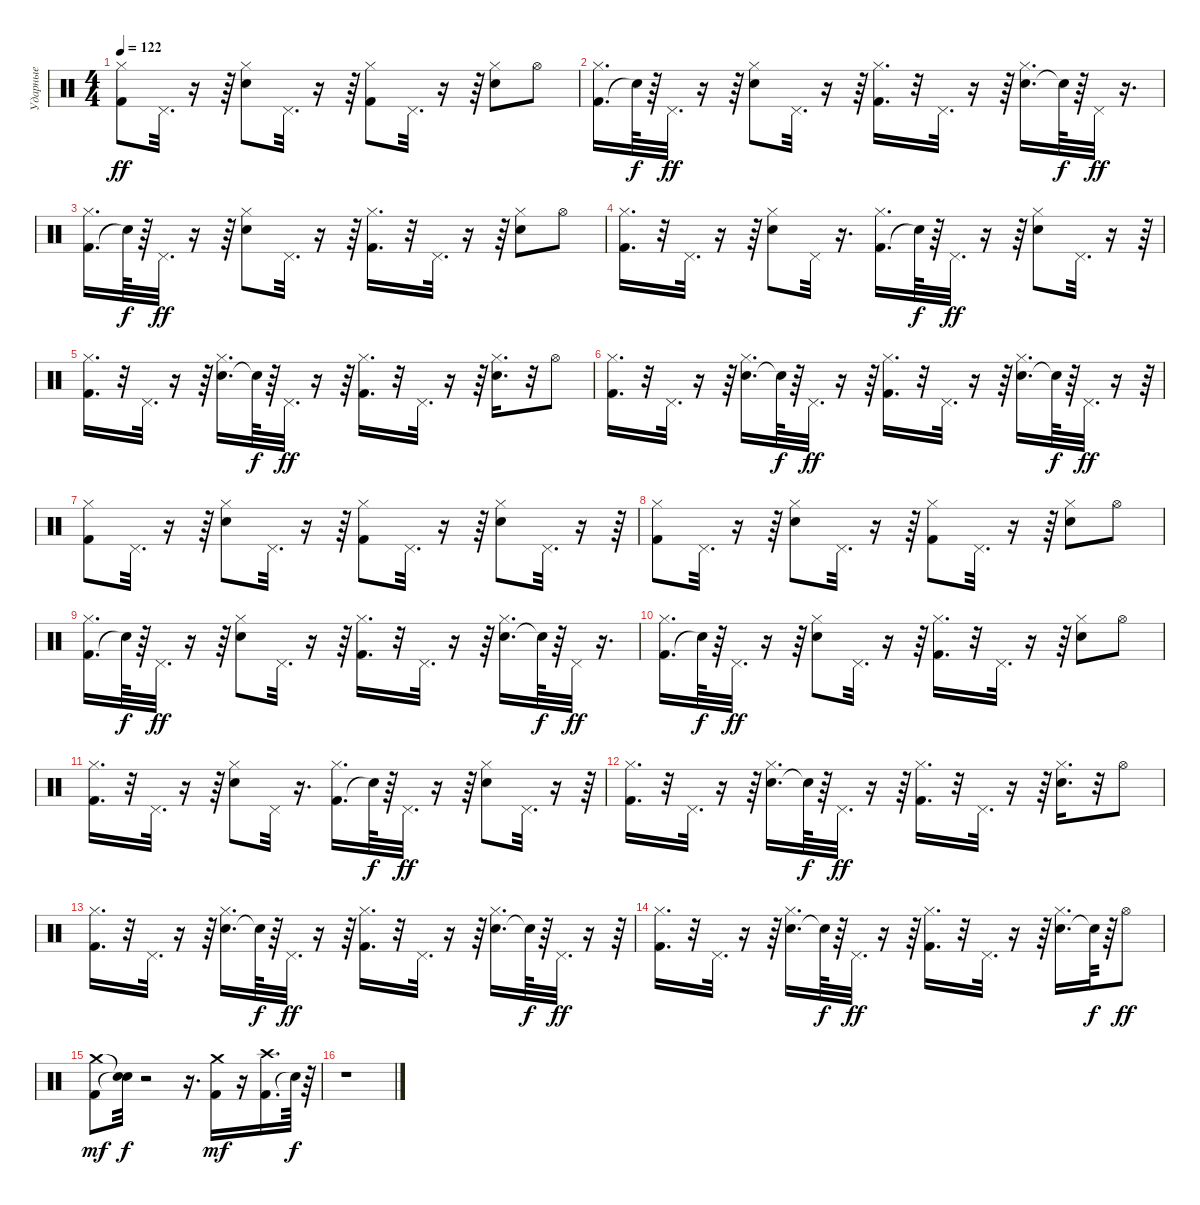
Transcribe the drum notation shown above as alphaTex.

\track ("Ударные" "Ударные") {instrument percussion}
\staff {score}
\articulation defaults
\ts (4 4)
\tempo 122
\clef neutral
\ks c
("Kick (hit) 2" "Hi-Hat (closed)").8{dy ff} "Pedal Hi-Hat (hit)".32{d} r.16 r.64 ("Snare (hit) 2" "Hi-Hat (closed)").8 "Pedal Hi-Hat (hit)".32{d} r.16 r.64 ("Kick (hit) 2" "Hi-Hat (closed)").8 "Pedal Hi-Hat (hit)".32{d} r.16 r.64 ("Snare (hit) 2" "Hi-Hat (closed)").8 "Hi-Hat (open)".8 |
("Kick (hit) 2" "Hi-Hat (closed)").16{d} "Snare (hit)"{t}.64{dy f} r.64 "Pedal Hi-Hat (hit)".32{d dy ff} r.16 r.64 ("Snare (hit) 2" "Hi-Hat (closed)").8 "Pedal Hi-Hat (hit)".32{d} r.16 r.64 ("Kick (hit) 2" "Hi-Hat (closed)").16{d} r.32 "Pedal Hi-Hat (hit)".32{d} r.16 r.64 ("Snare (hit) 2" "Hi-Hat (closed)").16{d} "Snare (hit)"{t}.64{dy f} r.64 "Pedal Hi-Hat (hit)".32{dy ff} r.16{d} |
("Kick (hit) 2" "Hi-Hat (closed)").16{d} "Snare (hit)"{t}.64{dy f} r.64 "Pedal Hi-Hat (hit)".32{d dy ff} r.16 r.64 ("Snare (hit) 2" "Hi-Hat (closed)").8 "Pedal Hi-Hat (hit)".32{d} r.16 r.64 ("Kick (hit) 2" "Hi-Hat (closed)").16{d} r.32 "Pedal Hi-Hat (hit)".32{d} r.16 r.64 ("Snare (hit) 2" "Hi-Hat (closed)").8 "Hi-Hat (open)".8 |
("Kick (hit) 2" "Hi-Hat (closed)").16{d} r.32 "Pedal Hi-Hat (hit)".32{d} r.16 r.64 ("Snare (hit) 2" "Hi-Hat (closed)").8 "Pedal Hi-Hat (hit)".32 r.16{d} ("Kick (hit) 2" "Hi-Hat (closed)").16{d} "Snare (hit)"{t}.64{dy f} r.64 "Pedal Hi-Hat (hit)".32{d dy ff} r.16 r.64 ("Snare (hit) 2" "Hi-Hat (closed)").8 "Pedal Hi-Hat (hit)".32{d} r.16 r.64 |
("Kick (hit) 2" "Hi-Hat (closed)").16{d} r.32 "Pedal Hi-Hat (hit)".32{d} r.16 r.64 ("Snare (hit) 2" "Hi-Hat (closed)").16{d} "Snare (hit)"{t}.64{dy f} r.64 "Pedal Hi-Hat (hit)".32{d dy ff} r.16 r.64 ("Kick (hit) 2" "Hi-Hat (closed)").16{d} r.32 "Pedal Hi-Hat (hit)".32{d} r.16 r.64 ("Snare (hit) 2" "Hi-Hat (closed)").16{d} r.32 "Hi-Hat (open)".8 |
("Kick (hit) 2" "Hi-Hat (closed)").16{d} r.32 "Pedal Hi-Hat (hit)".32{d} r.16 r.64 ("Snare (hit) 2" "Hi-Hat (closed)").16{d} "Snare (hit)"{t}.64{dy f} r.64 "Pedal Hi-Hat (hit)".32{d dy ff} r.16 r.64 ("Kick (hit) 2" "Hi-Hat (closed)").16{d} r.32 "Pedal Hi-Hat (hit)".32{d} r.16 r.64 ("Snare (hit) 2" "Hi-Hat (closed)").16{d} "Snare (hit)"{t}.64{dy f} r.64 "Pedal Hi-Hat (hit)".32{d dy ff} r.16 r.64 |
("Kick (hit) 2" "Hi-Hat (closed)").8 "Pedal Hi-Hat (hit)".32{d} r.16 r.64 ("Snare (hit) 2" "Hi-Hat (closed)").8 "Pedal Hi-Hat (hit)".32{d} r.16 r.64 ("Kick (hit) 2" "Hi-Hat (closed)").8 "Pedal Hi-Hat (hit)".32{d} r.16 r.64 ("Snare (hit) 2" "Hi-Hat (closed)").8 "Pedal Hi-Hat (hit)".32{d} r.16 r.64 |
("Kick (hit) 2" "Hi-Hat (closed)").8 "Pedal Hi-Hat (hit)".32{d} r.16 r.64 ("Snare (hit) 2" "Hi-Hat (closed)").8 "Pedal Hi-Hat (hit)".32{d} r.16 r.64 ("Kick (hit) 2" "Hi-Hat (closed)").8 "Pedal Hi-Hat (hit)".32{d} r.16 r.64 ("Snare (hit) 2" "Hi-Hat (closed)").8 "Hi-Hat (open)".8 |
("Kick (hit) 2" "Hi-Hat (closed)").16{d} "Snare (hit)"{t}.64{dy f} r.64 "Pedal Hi-Hat (hit)".32{d dy ff} r.16 r.64 ("Snare (hit) 2" "Hi-Hat (closed)").8 "Pedal Hi-Hat (hit)".32{d} r.16 r.64 ("Kick (hit) 2" "Hi-Hat (closed)").16{d} r.32 "Pedal Hi-Hat (hit)".32{d} r.16 r.64 ("Snare (hit) 2" "Hi-Hat (closed)").16{d} "Snare (hit)"{t}.64{dy f} r.64 "Pedal Hi-Hat (hit)".32{dy ff} r.16{d} |
("Kick (hit) 2" "Hi-Hat (closed)").16{d} "Snare (hit)"{t}.64{dy f} r.64 "Pedal Hi-Hat (hit)".32{d dy ff} r.16 r.64 ("Snare (hit) 2" "Hi-Hat (closed)").8 "Pedal Hi-Hat (hit)".32{d} r.16 r.64 ("Kick (hit) 2" "Hi-Hat (closed)").16{d} r.32 "Pedal Hi-Hat (hit)".32{d} r.16 r.64 ("Snare (hit) 2" "Hi-Hat (closed)").8 "Hi-Hat (open)".8 |
("Kick (hit) 2" "Hi-Hat (closed)").16{d} r.32 "Pedal Hi-Hat (hit)".32{d} r.16 r.64 ("Snare (hit) 2" "Hi-Hat (closed)").8 "Pedal Hi-Hat (hit)".32 r.16{d} ("Kick (hit) 2" "Hi-Hat (closed)").16{d} "Snare (hit)"{t}.64{dy f} r.64 "Pedal Hi-Hat (hit)".32{d dy ff} r.16 r.64 ("Snare (hit) 2" "Hi-Hat (closed)").8 "Pedal Hi-Hat (hit)".32{d} r.16 r.64 |
("Kick (hit) 2" "Hi-Hat (closed)").16{d} r.32 "Pedal Hi-Hat (hit)".32{d} r.16 r.64 ("Snare (hit) 2" "Hi-Hat (closed)").16{d} "Snare (hit)"{t}.64{dy f} r.64 "Pedal Hi-Hat (hit)".32{d dy ff} r.16 r.64 ("Kick (hit) 2" "Hi-Hat (closed)").16{d} r.32 "Pedal Hi-Hat (hit)".32{d} r.16 r.64 ("Snare (hit) 2" "Hi-Hat (closed)").16{d} r.32 "Hi-Hat (open)".8 |
("Kick (hit) 2" "Hi-Hat (closed)").16{d} r.32 "Pedal Hi-Hat (hit)".32{d} r.16 r.64 ("Snare (hit) 2" "Hi-Hat (closed)").16{d} "Snare (hit)"{t}.64{dy f} r.64 "Pedal Hi-Hat (hit)".32{d dy ff} r.16 r.64 ("Kick (hit) 2" "Hi-Hat (closed)").16{d} r.32 "Pedal Hi-Hat (hit)".32{d} r.16 r.64 ("Snare (hit) 2" "Hi-Hat (closed)").16{d} "Snare (hit)"{t}.64{dy f} r.64 "Pedal Hi-Hat (hit)".32{d dy ff} r.16 r.64 |
("Kick (hit) 2" "Hi-Hat (closed)").16{d} r.32 "Pedal Hi-Hat (hit)".32{d} r.16 r.64 ("Snare (hit) 2" "Hi-Hat (closed)").16{d} "Snare (hit)"{t}.64{dy f} r.64 "Pedal Hi-Hat (hit)".32{d dy ff} r.16 r.64 ("Kick (hit) 2" "Hi-Hat (closed)").16{d} r.32 "Pedal Hi-Hat (hit)".32{d} r.16 r.64 ("Snare (hit) 2" "Hi-Hat (closed)").16{d} "Snare (hit)"{t}.64{dy f} r.64 "Hi-Hat (open)".8{dy ff} |
("Kick (hit) 2" "Crash medium (hit)").8{dy mf} ("Snare (hit)"{t} "Snare (hit)"{t}).32{dy f} r.2 r.16{d} ("Kick (hit) 2" "Crash medium (hit)").16{dy mf} r.16 ("Kick (hit) 2" "Crash high (hit)").16{d} "Snare (hit)"{t}.64{dy f} r.64 |
r.1
